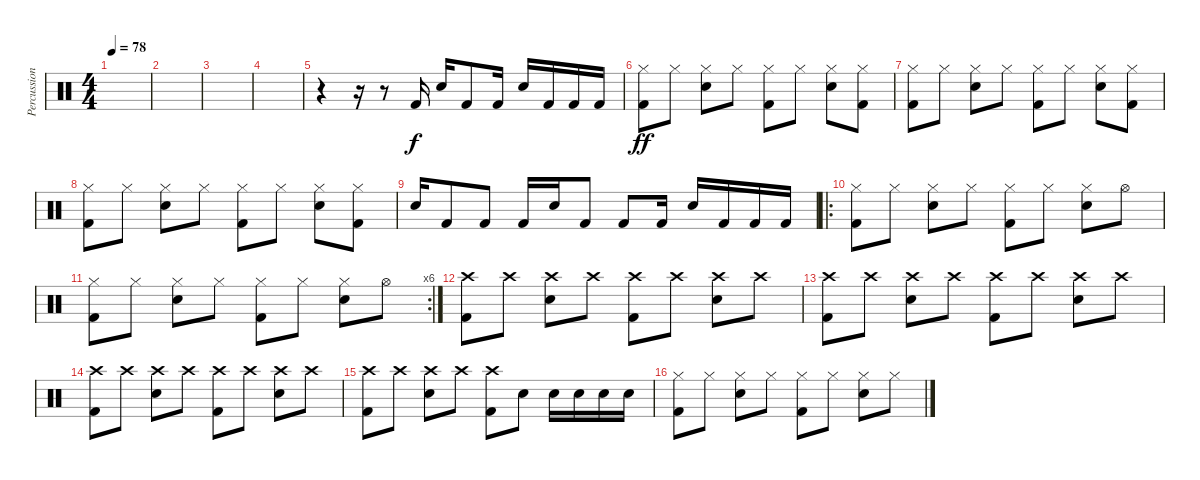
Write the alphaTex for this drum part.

\track ("Percussion" "Percussion") {instrument percussion}
\staff {score}
\articulation defaults
\ts (4 4)
\tempo 78
\clef neutral
\ks c
|
|
|
|
r.4 r.16 r.8 "Kick (hit) 2".16 "Snare (hit) 2".16 "Kick (hit) 2".8 "Kick (hit) 2".16 "Snare (hit) 2".16 "Kick (hit) 2".16 "Kick (hit) 2".16 "Kick (hit) 2".16 |
("Kick (hit) 2" "Hi-Hat (closed)").8{dy ff} "Hi-Hat (closed)".8 ("Snare (hit) 2" "Hi-Hat (closed)").8 "Hi-Hat (closed)".8 ("Kick (hit) 2" "Hi-Hat (closed)").8 "Hi-Hat (closed)".8 ("Snare (hit) 2" "Hi-Hat (closed)").8 ("Kick (hit) 2" "Hi-Hat (closed)").8 |
("Kick (hit) 2" "Hi-Hat (closed)").8 "Hi-Hat (closed)".8 ("Snare (hit) 2" "Hi-Hat (closed)").8 "Hi-Hat (closed)".8 ("Kick (hit) 2" "Hi-Hat (closed)").8 "Hi-Hat (closed)".8 ("Snare (hit) 2" "Hi-Hat (closed)").8 ("Kick (hit) 2" "Hi-Hat (closed)").8 |
("Kick (hit) 2" "Hi-Hat (closed)").8 "Hi-Hat (closed)".8 ("Snare (hit) 2" "Hi-Hat (closed)").8 "Hi-Hat (closed)".8 ("Kick (hit) 2" "Hi-Hat (closed)").8 "Hi-Hat (closed)".8 ("Snare (hit) 2" "Hi-Hat (closed)").8 ("Kick (hit) 2" "Hi-Hat (closed)").8 |
"Snare (hit) 2".16 "Kick (hit) 2".8 "Kick (hit) 2".8 "Kick (hit) 2".16 "Snare (hit) 2".16 "Kick (hit) 2".8 "Kick (hit) 2".8 "Kick (hit) 2".16 "Snare (hit) 2".16 "Kick (hit) 2".16 "Kick (hit) 2".16 "Kick (hit) 2".16 |
\ro
("Kick (hit) 2" "Hi-Hat (closed)").8 "Hi-Hat (closed)".8 ("Snare (hit) 2" "Hi-Hat (closed)").8 "Hi-Hat (closed)".8 ("Kick (hit) 2" "Hi-Hat (closed)").8 "Hi-Hat (closed)".8 ("Snare (hit) 2" "Hi-Hat (closed)").8 "Hi-Hat (open)".8 |
\rc 6
("Kick (hit) 2" "Hi-Hat (closed)").8 "Hi-Hat (closed)".8 ("Snare (hit) 2" "Hi-Hat (closed)").8 "Hi-Hat (closed)".8 ("Kick (hit) 2" "Hi-Hat (closed)").8 "Hi-Hat (closed)".8 ("Snare (hit) 2" "Hi-Hat (closed)").8 "Hi-Hat (open)".8 |
("Kick (hit) 2" "Crash high (hit)").8 "Crash high (hit)".8 ("Snare (hit) 2" "Crash high (hit)").8 "Crash high (hit)".8 ("Kick (hit) 2" "Crash high (hit)").8 "Crash high (hit)".8 ("Snare (hit) 2" "Crash high (hit)").8 "Crash high (hit)".8 |
("Kick (hit) 2" "Crash high (hit)").8 "Crash high (hit)".8 ("Snare (hit) 2" "Crash high (hit)").8 "Crash high (hit)".8 ("Kick (hit) 2" "Crash high (hit)").8 "Crash high (hit)".8 ("Snare (hit) 2" "Crash high (hit)").8 "Crash high (hit)".8 |
("Kick (hit) 2" "Crash high (hit)").8 "Crash high (hit)".8 ("Snare (hit) 2" "Crash high (hit)").8 "Crash high (hit)".8 ("Kick (hit) 2" "Crash high (hit)").8 "Crash high (hit)".8 ("Snare (hit) 2" "Crash high (hit)").8 "Crash high (hit)".8 |
("Kick (hit) 2" "Crash high (hit)").8 "Crash high (hit)".8 ("Snare (hit) 2" "Crash high (hit)").8 "Crash high (hit)".8 ("Kick (hit) 2" "Crash high (hit)").8 "Snare (hit) 2".8 "Snare (hit) 2".16 "Snare (hit) 2".16 "Snare (hit) 2".16 "Snare (hit) 2".16 |
("Kick (hit) 2" "Hi-Hat (closed)").8 "Hi-Hat (closed)".8 ("Snare (hit) 2" "Hi-Hat (closed)").8 "Hi-Hat (closed)".8 ("Kick (hit) 2" "Hi-Hat (closed)").8 "Hi-Hat (closed)".8 ("Snare (hit) 2" "Hi-Hat (closed)").8 "Hi-Hat (closed)".8
